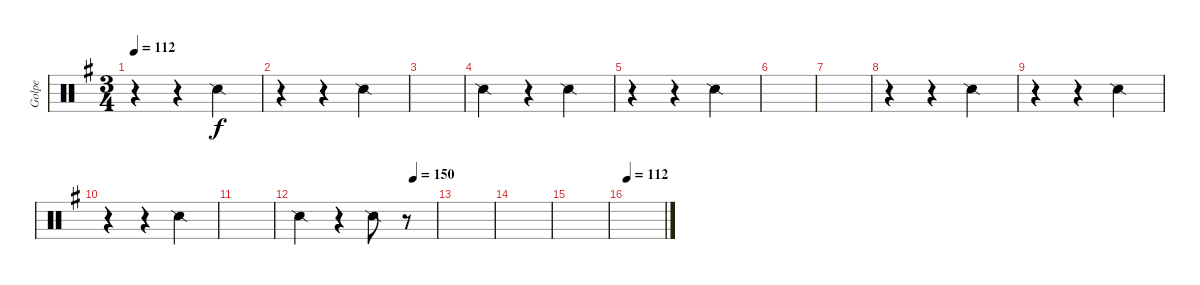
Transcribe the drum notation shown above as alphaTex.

\track ("Golpe" "Golpe") {instrument percussion}
\staff {score}
\articulation defaults
\ts (3 4)
\tempo 112
\clef neutral
\ks g
r.4{dy f} r.4 "Snare (side stick) 2".4 |
r.4 r.4 "Snare (side stick) 2".4 |
|
"Snare (side stick) 2".4 r.4 "Snare (side stick) 2".4 |
r.4 r.4 "Snare (side stick) 2".4 |
|
|
r.4 r.4 "Snare (side stick) 2".4 |
r.4 r.4 "Snare (side stick) 2".4 |
r.4 r.4 "Snare (side stick) 2".4 |
|
\tempo (150 0.8333333333333334)
"Snare (side stick) 2".4 r.4 "Snare (side stick) 2".8 r.8 |
|
|
|
\tempo 112
